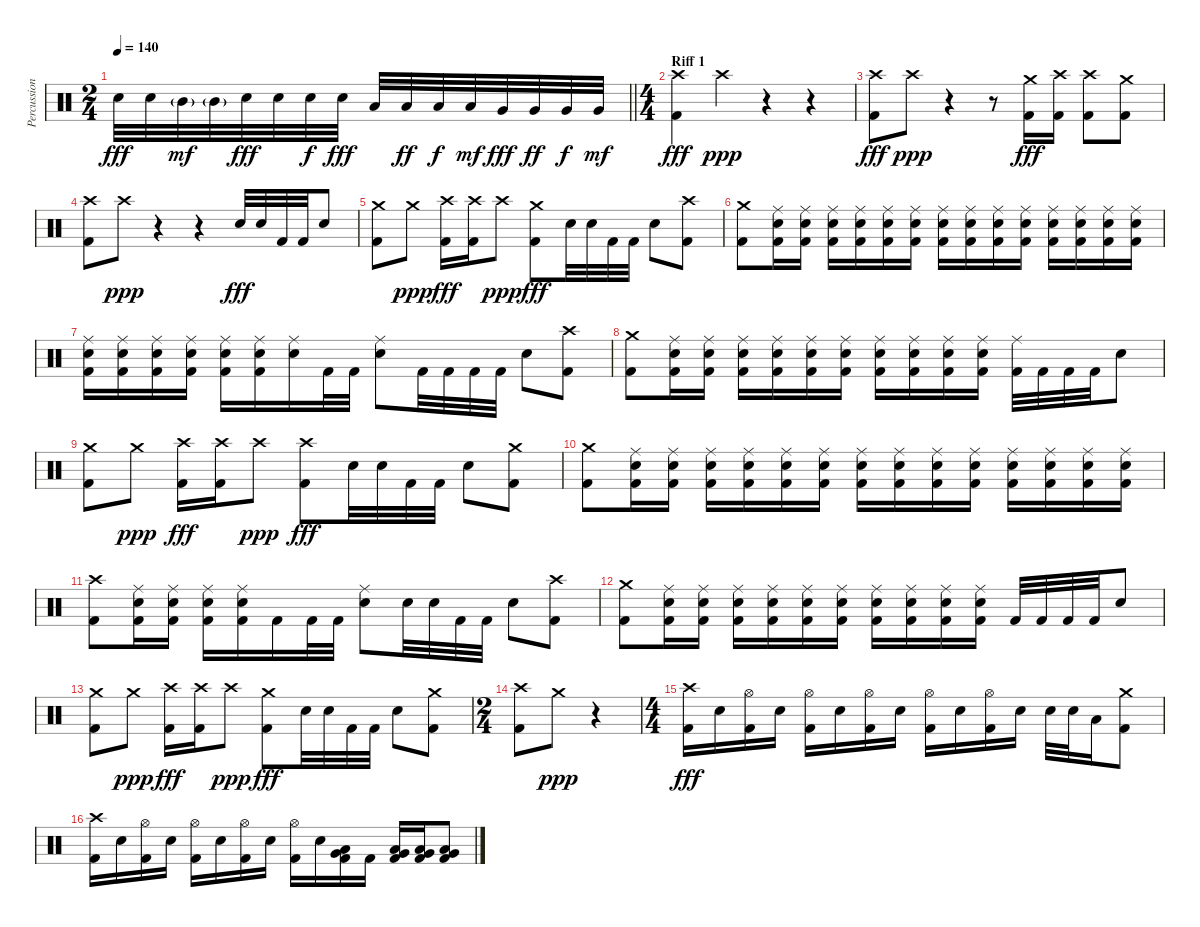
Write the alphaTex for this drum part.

\track ("Percussion" "Percussion") {instrument percussion}
\staff {score}
\articulation defaults
\ts (2 4)
\tempo 140
\clef neutral
\barLineRight lightlight
\ks c "Electric Snare (hit)".32{dy fff} "Electric Snare (hit)".32 "Mid Tom (hit)"{g}.32{dy mf} "Mid Tom (hit)"{g}.32 "Electric Snare (hit)".32{dy fff} "Electric Snare (hit)".32 "Electric Snare (hit)".32{dy f} "Electric Snare (hit)".32{dy fff} "Low Tom (hit)".32 "Low Tom (hit)".32{dy ff} "Low Tom (hit)".32{dy f} "Low Tom (hit)".32{dy mf} "Very Low Tom (hit)".32{dy fff} "Very Low Tom (hit)".32{dy ff} "Very Low Tom (hit)".32{dy f} "Very Low Tom (hit)".32{dy mf}
|
\ts (4 4)
\section ("" "Riff 1")
("Crash high (hit)" "Kick (hit) 2").4{dy fff} "Crash high (hit)".4{dy ppp} r.4 r.4 |
("Crash high (hit)" "Kick (hit) 2").8{dy fff} "Crash high (hit)".8{dy ppp} r.4 r.8 ("Crash medium (hit)" "Kick (hit) 2").16{dy fff} ("Crash high (hit)" "Kick (hit) 2").16 ("Crash high (hit)" "Kick (hit) 2").8 ("Crash medium (hit)" "Kick (hit) 2").8 |
("Crash high (hit)" "Kick (hit) 2").8 "Crash high (hit)".8{dy ppp} r.4 r.4 "Electric Snare (hit)".32{dy fff} "Electric Snare (hit)".32 "Kick (hit) 2".32 "Kick (hit) 2".32 "Electric Snare (hit)".8 |
("Crash medium (hit)" "Kick (hit) 2").8 "Crash medium (hit)".8{dy ppp} ("Crash high (hit)" "Kick (hit) 2").16{dy fff} ("Crash high (hit)" "Kick (hit) 2").16 "Crash high (hit)".8{dy ppp} ("Crash medium (hit)" "Kick (hit) 2").8{dy fff} "Electric Snare (hit)".32 "Electric Snare (hit)".32 "Kick (hit) 2".32 "Kick (hit) 2".32 "Electric Snare (hit)".8 ("Crash high (hit)" "Kick (hit) 2").8 |
("Crash medium (hit)" "Kick (hit) 2").8 ("Ride (middle)" "Electric Snare (hit)" "Kick (hit) 2").16 ("Ride (middle)" "Electric Snare (hit)" "Kick (hit) 2").16 ("Ride (middle)" "Electric Snare (hit)" "Kick (hit) 2").16 ("Ride (middle)" "Electric Snare (hit)" "Kick (hit) 2").16 ("Ride (middle)" "Electric Snare (hit)" "Kick (hit) 2").16 ("Ride (middle)" "Electric Snare (hit)" "Kick (hit) 2").16 ("Ride (middle)" "Electric Snare (hit)" "Kick (hit) 2").16 ("Ride (middle)" "Electric Snare (hit)" "Kick (hit) 2").16 ("Ride (middle)" "Electric Snare (hit)" "Kick (hit) 2").16 ("Ride (middle)" "Electric Snare (hit)" "Kick (hit) 2").16 ("Ride (middle)" "Electric Snare (hit)" "Kick (hit) 2").16 ("Ride (middle)" "Electric Snare (hit)" "Kick (hit) 2").16 ("Ride (middle)" "Electric Snare (hit)" "Kick (hit) 2").16 ("Ride (middle)" "Electric Snare (hit)" "Kick (hit) 2").16 |
("Ride (middle)" "Electric Snare (hit)" "Kick (hit) 2").16 ("Ride (middle)" "Electric Snare (hit)" "Kick (hit) 2").16 ("Ride (middle)" "Electric Snare (hit)" "Kick (hit) 2").16 ("Ride (middle)" "Electric Snare (hit)" "Kick (hit) 2").16 ("Ride (middle)" "Electric Snare (hit)" "Kick (hit) 2").16 ("Ride (middle)" "Electric Snare (hit)" "Kick (hit) 2").16 ("Ride (middle)" "Electric Snare (hit)").16 "Kick (hit) 2".32 "Kick (hit) 2".32 ("Ride (middle)" "Electric Snare (hit)").8 "Kick (hit) 2".32 "Kick (hit) 2".32 "Kick (hit) 2".32 "Kick (hit) 2".32 "Electric Snare (hit)".8 ("Crash high (hit)" "Kick (hit) 2").8 |
("Crash medium (hit)" "Kick (hit) 2").8 ("Ride (middle)" "Electric Snare (hit)" "Kick (hit) 2").16 ("Ride (middle)" "Electric Snare (hit)" "Kick (hit) 2").16 ("Ride (middle)" "Electric Snare (hit)" "Kick (hit) 2").16 ("Ride (middle)" "Electric Snare (hit)" "Kick (hit) 2").16 ("Ride (middle)" "Electric Snare (hit)" "Kick (hit) 2").16 ("Ride (middle)" "Electric Snare (hit)" "Kick (hit) 2").16 ("Ride (middle)" "Electric Snare (hit)" "Kick (hit) 2").16 ("Ride (middle)" "Electric Snare (hit)" "Kick (hit) 2").16 ("Ride (middle)" "Electric Snare (hit)" "Kick (hit) 2").16 ("Ride (middle)" "Electric Snare (hit)" "Kick (hit) 2").16 ("Ride (middle)" "Kick (hit) 2").32 "Kick (hit) 2".32 "Kick (hit) 2".32 "Kick (hit) 2".32 "Electric Snare (hit)".8 |
("Crash medium (hit)" "Kick (hit) 2").8 "Crash medium (hit)".8{dy ppp} ("Crash high (hit)" "Kick (hit) 2").16{dy fff} ("Crash high (hit)" "Kick (hit) 2").16 "Crash high (hit)".8{dy ppp} ("Crash high (hit)" "Kick (hit) 2").8{dy fff} "Electric Snare (hit)".32 "Electric Snare (hit)".32 "Kick (hit) 2".32 "Kick (hit) 2".32 "Electric Snare (hit)".8 ("Crash medium (hit)" "Kick (hit) 2").8 |
("Crash medium (hit)" "Kick (hit) 2").8 ("Ride (middle)" "Electric Snare (hit)" "Kick (hit) 2").16 ("Ride (middle)" "Electric Snare (hit)" "Kick (hit) 2").16 ("Ride (middle)" "Electric Snare (hit)" "Kick (hit) 2").16 ("Ride (middle)" "Electric Snare (hit)" "Kick (hit) 2").16 ("Ride (middle)" "Electric Snare (hit)" "Kick (hit) 2").16 ("Ride (middle)" "Electric Snare (hit)" "Kick (hit) 2").16 ("Ride (middle)" "Electric Snare (hit)" "Kick (hit) 2").16 ("Ride (middle)" "Electric Snare (hit)" "Kick (hit) 2").16 ("Ride (middle)" "Electric Snare (hit)" "Kick (hit) 2").16 ("Ride (middle)" "Electric Snare (hit)" "Kick (hit) 2").16 ("Ride (middle)" "Electric Snare (hit)" "Kick (hit) 2").16 ("Ride (middle)" "Electric Snare (hit)" "Kick (hit) 2").16 ("Ride (middle)" "Electric Snare (hit)" "Kick (hit) 2").16 ("Ride (middle)" "Electric Snare (hit)" "Kick (hit) 2").16 |
("Crash high (hit)" "Kick (hit) 2").8 ("Ride (middle)" "Electric Snare (hit)" "Kick (hit) 2").16 ("Ride (middle)" "Electric Snare (hit)" "Kick (hit) 2").16 ("Ride (middle)" "Electric Snare (hit)" "Kick (hit) 2").16 ("Ride (middle)" "Electric Snare (hit)" "Kick (hit) 2").16 "Kick (hit) 2".16 "Kick (hit) 2".32 "Kick (hit) 2".32 ("Ride (middle)" "Electric Snare (hit)").8 "Electric Snare (hit)".32 "Electric Snare (hit)".32 "Kick (hit) 2".32 "Kick (hit) 2".32 "Electric Snare (hit)".8 ("Crash high (hit)" "Kick (hit) 2").8 |
("Crash medium (hit)" "Kick (hit) 2").8 ("Ride (middle)" "Electric Snare (hit)" "Kick (hit) 2").16 ("Ride (middle)" "Electric Snare (hit)" "Kick (hit) 2").16 ("Ride (middle)" "Electric Snare (hit)" "Kick (hit) 2").16 ("Ride (middle)" "Electric Snare (hit)" "Kick (hit) 2").16 ("Ride (middle)" "Electric Snare (hit)" "Kick (hit) 2").16 ("Ride (middle)" "Electric Snare (hit)" "Kick (hit) 2").16 ("Ride (middle)" "Electric Snare (hit)" "Kick (hit) 2").16 ("Ride (middle)" "Electric Snare (hit)" "Kick (hit) 2").16 ("Ride (middle)" "Electric Snare (hit)" "Kick (hit) 2").16 ("Ride (middle)" "Electric Snare (hit)" "Kick (hit) 2").16 "Kick (hit) 2".32 "Kick (hit) 2".32 "Kick (hit) 2".32 "Kick (hit) 2".32 "Electric Snare (hit)".8 |
("Crash medium (hit)" "Kick (hit) 2").8 "Crash medium (hit)".8{dy ppp} ("Crash high (hit)" "Kick (hit) 2").16{dy fff} ("Crash high (hit)" "Kick (hit) 2").16 "Crash high (hit)".8{dy ppp} ("Crash medium (hit)" "Kick (hit) 2").8{dy fff} "Electric Snare (hit)".32 "Electric Snare (hit)".32 "Kick (hit) 2".32 "Kick (hit) 2".32 "Electric Snare (hit)".8 ("Crash medium (hit)" "Kick (hit) 2").8 |
\ts (2 4)
("Crash high (hit)" "Kick (hit) 2").8 "Crash medium (hit)".8{dy ppp} r.4 |
\ts (4 4)
("Crash high (hit)" "Kick (hit) 2").16{dy fff} "Electric Snare (hit)".16 ("Hi-Hat (open)" "Kick (hit) 2").16 "Electric Snare (hit)".16 ("Hi-Hat (open)" "Kick (hit) 2").16 "Electric Snare (hit)".16 ("Hi-Hat (open)" "Kick (hit) 2").16 "Electric Snare (hit)".16 ("Hi-Hat (open)" "Kick (hit) 2").16 "Electric Snare (hit)".16 ("Hi-Hat (open)" "Kick (hit) 2").16 "Electric Snare (hit)".16 "Electric Snare (hit)".32 "Electric Snare (hit)".32 "Low Tom (hit)".16 ("Crash medium (hit)" "Kick (hit) 2").8 |
("Crash high (hit)" "Kick (hit) 2").16 "Electric Snare (hit)".16 ("Hi-Hat (open)" "Kick (hit) 2").16 "Electric Snare (hit)".16 ("Hi-Hat (open)" "Kick (hit) 2").16 "Electric Snare (hit)".16 ("Hi-Hat (open)" "Kick (hit) 2").16 "Electric Snare (hit)".16 ("Hi-Hat (open)" "Kick (hit) 2").16 "Electric Snare (hit)".16 ("Very Low Tom (hit)" "Low Floor Tom (hit)" "Kick (hit) 2").16 "Kick (hit) 2".16 ("Very Low Tom (hit)" "Low Floor Tom (hit)" "Kick (hit) 2").16 ("Very Low Tom (hit)" "Low Floor Tom (hit)" "Kick (hit) 2").16 ("Very Low Tom (hit)" "Low Floor Tom (hit)" "Kick (hit) 2").8
